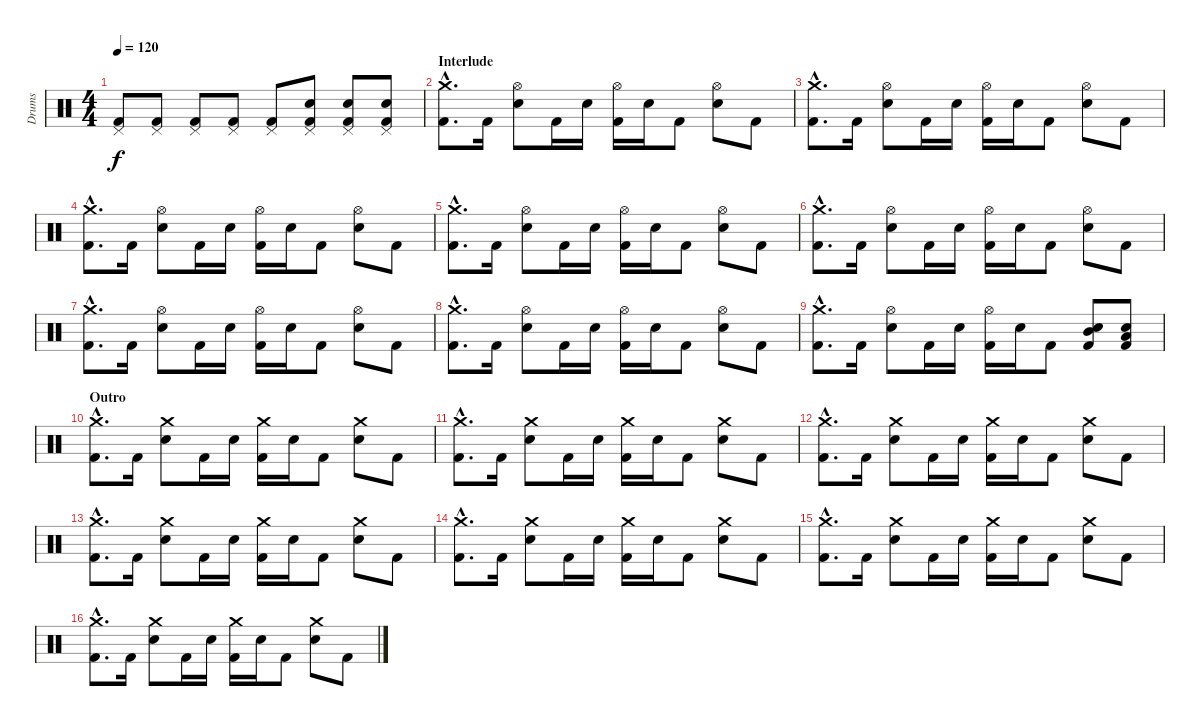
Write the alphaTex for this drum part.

\track ("Drums" "Drums") {instrument percussion}
\staff {score}
\articulation defaults
\ts (4 4)
\tempo 120
\clef neutral
\ks c
("Pedal Hi-Hat (hit)" "Kick (hit) 2").8{dy f} ("Pedal Hi-Hat (hit)" "Kick (hit) 2").8 ("Pedal Hi-Hat (hit)" "Kick (hit) 2").8 ("Pedal Hi-Hat (hit)" "Kick (hit) 2").8 ("Pedal Hi-Hat (hit)" "Kick (hit) 2").8 ("Pedal Hi-Hat (hit)" "Electric Snare (hit)" "Kick (hit) 2").8 ("Pedal Hi-Hat (hit)" "Electric Snare (hit)" "Kick (hit) 2").8 ("Pedal Hi-Hat (hit)" "Electric Snare (hit)" "Kick (hit) 2").8 |
\section ("" "Interlude")
("Crash medium (hit)"{hac} "Kick (hit) 2"{hac}).8{d} "Kick (hit) 2".16 ("Hi-Hat (open)" "Electric Snare (hit)").8 "Kick (hit) 2".16 "Electric Snare (hit)".16 ("Hi-Hat (open)" "Kick (hit) 2").16 "Electric Snare (hit)".16 "Kick (hit) 2".8 ("Hi-Hat (open)" "Electric Snare (hit)").8 "Kick (hit) 2".8 |
("Crash medium (hit)"{hac} "Kick (hit) 2"{hac}).8{d} "Kick (hit) 2".16 ("Hi-Hat (open)" "Electric Snare (hit)").8 "Kick (hit) 2".16 "Electric Snare (hit)".16 ("Hi-Hat (open)" "Kick (hit) 2").16 "Electric Snare (hit)".16 "Kick (hit) 2".8 ("Hi-Hat (open)" "Electric Snare (hit)").8 "Kick (hit) 2".8 |
("Crash medium (hit)"{hac} "Kick (hit) 2"{hac}).8{d} "Kick (hit) 2".16 ("Hi-Hat (open)" "Electric Snare (hit)").8 "Kick (hit) 2".16 "Electric Snare (hit)".16 ("Hi-Hat (open)" "Kick (hit) 2").16 "Electric Snare (hit)".16 "Kick (hit) 2".8 ("Hi-Hat (open)" "Electric Snare (hit)").8 "Kick (hit) 2".8 |
("Crash medium (hit)"{hac} "Kick (hit) 2"{hac}).8{d} "Kick (hit) 2".16 ("Hi-Hat (open)" "Electric Snare (hit)").8 "Kick (hit) 2".16 "Electric Snare (hit)".16 ("Hi-Hat (open)" "Kick (hit) 2").16 "Electric Snare (hit)".16 "Kick (hit) 2".8 ("Hi-Hat (open)" "Electric Snare (hit)").8 "Kick (hit) 2".8 |
("Crash medium (hit)"{hac} "Kick (hit) 2"{hac}).8{d} "Kick (hit) 2".16 ("Hi-Hat (open)" "Electric Snare (hit)").8 "Kick (hit) 2".16 "Electric Snare (hit)".16 ("Hi-Hat (open)" "Kick (hit) 2").16 "Electric Snare (hit)".16 "Kick (hit) 2".8 ("Hi-Hat (open)" "Electric Snare (hit)").8 "Kick (hit) 2".8 |
("Crash medium (hit)"{hac} "Kick (hit) 2"{hac}).8{d} "Kick (hit) 2".16 ("Hi-Hat (open)" "Electric Snare (hit)").8 "Kick (hit) 2".16 "Electric Snare (hit)".16 ("Hi-Hat (open)" "Kick (hit) 2").16 "Electric Snare (hit)".16 "Kick (hit) 2".8 ("Hi-Hat (open)" "Electric Snare (hit)").8 "Kick (hit) 2".8 |
("Crash medium (hit)"{hac} "Kick (hit) 2"{hac}).8{d} "Kick (hit) 2".16 ("Hi-Hat (open)" "Electric Snare (hit)").8 "Kick (hit) 2".16 "Electric Snare (hit)".16 ("Hi-Hat (open)" "Kick (hit) 2").16 "Electric Snare (hit)".16 "Kick (hit) 2".8 ("Hi-Hat (open)" "Electric Snare (hit)").8 "Kick (hit) 2".8 |
("Crash medium (hit)"{hac} "Kick (hit) 2"{hac}).8{d} "Kick (hit) 2".16 ("Hi-Hat (open)" "Electric Snare (hit)").8 "Kick (hit) 2".16 "Electric Snare (hit)".16 ("Hi-Hat (open)" "Kick (hit) 2").16 "Electric Snare (hit)".16 "Kick (hit) 2".8 ("Electric Snare (hit)" "Kick (hit) 2" "Mid Tom (hit)").8 ("Electric Snare (hit)" "Kick (hit) 2" "Low Tom (hit)").8 |
\section ("" "Outro")
("Crash medium (hit)"{hac} "Kick (hit) 2"{hac}).8{d} "Kick (hit) 2".16 ("Crash medium (hit)" "Electric Snare (hit)").8 "Kick (hit) 2".16 "Electric Snare (hit)".16 ("Crash medium (hit)" "Kick (hit) 2").16 "Electric Snare (hit)".16 "Kick (hit) 2".8 ("Crash medium (hit)" "Electric Snare (hit)").8 "Kick (hit) 2".8 |
("Crash medium (hit)"{hac} "Kick (hit) 2"{hac}).8{d} "Kick (hit) 2".16 ("Crash medium (hit)" "Electric Snare (hit)").8 "Kick (hit) 2".16 "Electric Snare (hit)".16 ("Crash medium (hit)" "Kick (hit) 2").16 "Electric Snare (hit)".16 "Kick (hit) 2".8 ("Crash medium (hit)" "Electric Snare (hit)").8 "Kick (hit) 2".8 |
("Crash medium (hit)"{hac} "Kick (hit) 2"{hac}).8{d} "Kick (hit) 2".16 ("Crash medium (hit)" "Electric Snare (hit)").8 "Kick (hit) 2".16 "Electric Snare (hit)".16 ("Crash medium (hit)" "Kick (hit) 2").16 "Electric Snare (hit)".16 "Kick (hit) 2".8 ("Crash medium (hit)" "Electric Snare (hit)").8 "Kick (hit) 2".8 |
("Crash medium (hit)"{hac} "Kick (hit) 2"{hac}).8{d} "Kick (hit) 2".16 ("Crash medium (hit)" "Electric Snare (hit)").8 "Kick (hit) 2".16 "Electric Snare (hit)".16 ("Crash medium (hit)" "Kick (hit) 2").16 "Electric Snare (hit)".16 "Kick (hit) 2".8 ("Crash medium (hit)" "Electric Snare (hit)").8 "Kick (hit) 2".8 |
("Crash medium (hit)"{hac} "Kick (hit) 2"{hac}).8{d} "Kick (hit) 2".16 ("Crash medium (hit)" "Electric Snare (hit)").8 "Kick (hit) 2".16 "Electric Snare (hit)".16 ("Crash medium (hit)" "Kick (hit) 2").16 "Electric Snare (hit)".16 "Kick (hit) 2".8 ("Crash medium (hit)" "Electric Snare (hit)").8 "Kick (hit) 2".8 |
("Crash medium (hit)"{hac} "Kick (hit) 2"{hac}).8{d} "Kick (hit) 2".16 ("Crash medium (hit)" "Electric Snare (hit)").8 "Kick (hit) 2".16 "Electric Snare (hit)".16 ("Crash medium (hit)" "Kick (hit) 2").16 "Electric Snare (hit)".16 "Kick (hit) 2".8 ("Crash medium (hit)" "Electric Snare (hit)").8 "Kick (hit) 2".8 |
("Crash medium (hit)"{hac} "Kick (hit) 2"{hac}).8{d} "Kick (hit) 2".16 ("Crash medium (hit)" "Electric Snare (hit)").8 "Kick (hit) 2".16 "Electric Snare (hit)".16 ("Crash medium (hit)" "Kick (hit) 2").16 "Electric Snare (hit)".16 "Kick (hit) 2".8 ("Crash medium (hit)" "Electric Snare (hit)").8 "Kick (hit) 2".8
